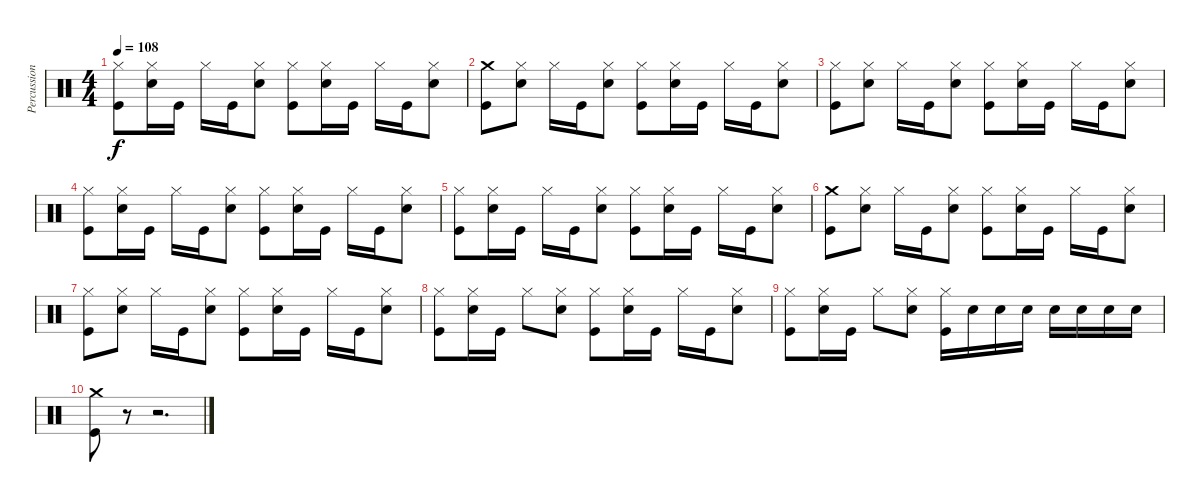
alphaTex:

\track ("Percussion" "Percussion") {instrument percussion}
\staff {score}
\articulation defaults
\ts (4 4)
\tempo 108
\clef neutral
\ks c
("Kick (hit)" "Hi-Hat (closed)").8{dy f} ("Hi-Hat (closed)" "Snare (hit) 2").16 "Kick (hit)".16 "Hi-Hat (closed)".16 "Kick (hit)".16 ("Hi-Hat (closed)" "Snare (hit) 2").8 ("Kick (hit)" "Hi-Hat (closed)").8 ("Hi-Hat (closed)" "Snare (hit) 2").16 "Kick (hit)".16 "Hi-Hat (closed)".16 "Kick (hit)".16 ("Hi-Hat (closed)" "Snare (hit) 2").8 |
("Kick (hit)" "Crash medium (hit)").8 ("Hi-Hat (closed)" "Snare (hit) 2").8 "Hi-Hat (closed)".16 "Kick (hit)".16 ("Hi-Hat (closed)" "Snare (hit) 2").8 ("Kick (hit)" "Hi-Hat (closed)").8 ("Hi-Hat (closed)" "Snare (hit) 2").16 "Kick (hit)".16 "Hi-Hat (closed)".16 "Kick (hit)".16 ("Hi-Hat (closed)" "Snare (hit) 2").8 |
("Kick (hit)" "Hi-Hat (closed)").8 ("Hi-Hat (closed)" "Snare (hit) 2").8 "Hi-Hat (closed)".16 "Kick (hit)".16 ("Hi-Hat (closed)" "Snare (hit) 2").8 ("Kick (hit)" "Hi-Hat (closed)").8 ("Hi-Hat (closed)" "Snare (hit) 2").16 "Kick (hit)".16 "Hi-Hat (closed)".16 "Kick (hit)".16 ("Hi-Hat (closed)" "Snare (hit) 2").8 |
("Kick (hit)" "Hi-Hat (closed)").8 ("Hi-Hat (closed)" "Snare (hit) 2").16 "Kick (hit)".16 "Hi-Hat (closed)".16 "Kick (hit)".16 ("Hi-Hat (closed)" "Snare (hit) 2").8 ("Kick (hit)" "Hi-Hat (closed)").8 ("Hi-Hat (closed)" "Snare (hit) 2").16 "Kick (hit)".16 "Hi-Hat (closed)".16 "Kick (hit)".16 ("Hi-Hat (closed)" "Snare (hit) 2").8 |
("Kick (hit)" "Hi-Hat (closed)").8 ("Hi-Hat (closed)" "Snare (hit) 2").16 "Kick (hit)".16 "Hi-Hat (closed)".16 "Kick (hit)".16 ("Hi-Hat (closed)" "Snare (hit) 2").8 ("Kick (hit)" "Hi-Hat (closed)").8 ("Hi-Hat (closed)" "Snare (hit) 2").16 "Kick (hit)".16 "Hi-Hat (closed)".16 "Kick (hit)".16 ("Hi-Hat (closed)" "Snare (hit) 2").8 |
("Kick (hit)" "Crash medium (hit)").8 ("Hi-Hat (closed)" "Snare (hit) 2").8 "Hi-Hat (closed)".16 "Kick (hit)".16 ("Hi-Hat (closed)" "Snare (hit) 2").8 ("Kick (hit)" "Hi-Hat (closed)").8 ("Hi-Hat (closed)" "Snare (hit) 2").16 "Kick (hit)".16 "Hi-Hat (closed)".16 "Kick (hit)".16 ("Hi-Hat (closed)" "Snare (hit) 2").8 |
("Kick (hit)" "Hi-Hat (closed)").8 ("Hi-Hat (closed)" "Snare (hit) 2").8 "Hi-Hat (closed)".16 "Kick (hit)".16 ("Hi-Hat (closed)" "Snare (hit) 2").8 ("Kick (hit)" "Hi-Hat (closed)").8 ("Hi-Hat (closed)" "Snare (hit) 2").16 "Kick (hit)".16 "Hi-Hat (closed)".16 "Kick (hit)".16 ("Hi-Hat (closed)" "Snare (hit) 2").8 |
("Kick (hit)" "Hi-Hat (closed)").8 ("Hi-Hat (closed)" "Snare (hit) 2").16 "Kick (hit)".16 "Hi-Hat (closed)".8 ("Hi-Hat (closed)" "Snare (hit) 2").8 ("Kick (hit)" "Hi-Hat (closed)").8 ("Hi-Hat (closed)" "Snare (hit) 2").16 "Kick (hit)".16 "Hi-Hat (closed)".16 "Kick (hit)".16 ("Hi-Hat (closed)" "Snare (hit) 2").8 |
("Kick (hit)" "Hi-Hat (closed)").8 ("Hi-Hat (closed)" "Snare (hit) 2").16 "Kick (hit)".16 "Hi-Hat (closed)".8 ("Hi-Hat (closed)" "Snare (hit) 2").8 ("Kick (hit)" "Hi-Hat (closed)").16 "Snare (hit) 2".16 "Snare (hit) 2".16 "Snare (hit) 2".16 "Snare (hit) 2".16 "Snare (hit) 2".16 "Snare (hit) 2".16 "Snare (hit) 2".16 |
("Kick (hit)" "Crash medium (hit)").8 r.8 r.2{d}
